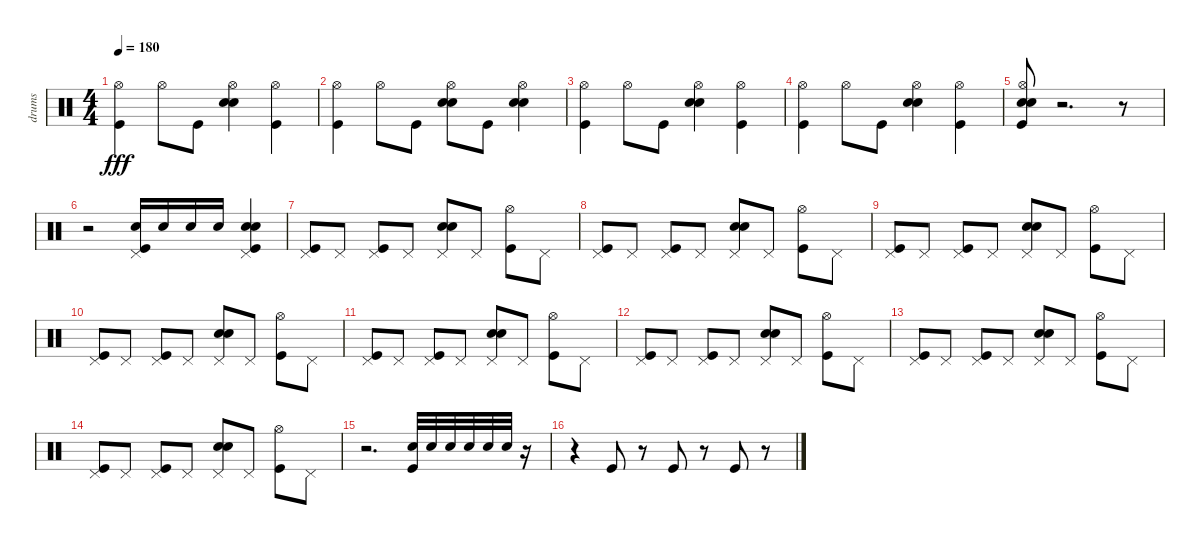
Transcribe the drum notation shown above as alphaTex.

\track ("drums" "drums") {instrument percussion}
\staff {score}
\articulation defaults
\ts (4 4)
\tempo 180
\clef neutral
\ks c
("Kick (hit)" "Hi-Hat (open)").4{dy fff} "Hi-Hat (open)".8 "Kick (hit)".8 ("Snare (hit) 2" "Electric Snare (hit)" "Hi-Hat (open)").4 ("Hi-Hat (open)" "Kick (hit)").4 |
("Hi-Hat (open)" "Kick (hit)").4 "Hi-Hat (open)".8 "Kick (hit)".8 ("Hi-Hat (open)" "Snare (hit) 2" "Electric Snare (hit)").8 "Kick (hit)".8 ("Hi-Hat (open)" "Electric Snare (hit)" "Snare (hit) 2").4 |
("Hi-Hat (open)" "Kick (hit)").4 "Hi-Hat (open)".8 "Kick (hit)".8 ("Hi-Hat (open)" "Snare (hit) 2" "Electric Snare (hit)").4 ("Hi-Hat (open)" "Kick (hit)").4 |
("Hi-Hat (open)" "Kick (hit)").4 "Hi-Hat (open)".8 "Kick (hit)".8 ("Hi-Hat (open)" "Snare (hit) 2" "Electric Snare (hit)").4 ("Hi-Hat (open)" "Kick (hit)").4 |
("Hi-Hat (open)" "Electric Snare (hit)" "Snare (hit) 2" "Kick (hit)").8 r.2{d} r.8 |
r.2 ("Pedal Hi-Hat (hit)" "Kick (hit)" "Snare (hit) 2").16 "Snare (hit) 2".16 "Snare (hit) 2".16 "Snare (hit) 2".16 ("Snare (hit) 2" "Electric Snare (hit)" "Pedal Hi-Hat (hit)" "Kick (hit)").4 |
("Pedal Hi-Hat (hit)" "Kick (hit)").8 "Pedal Hi-Hat (hit)".8 ("Pedal Hi-Hat (hit)" "Kick (hit)").8 "Pedal Hi-Hat (hit)".8 ("Pedal Hi-Hat (hit)" "Electric Snare (hit)" "Snare (hit) 2").8 "Pedal Hi-Hat (hit)".8 ("Hi-Hat (open)" "Kick (hit)").8 "Pedal Hi-Hat (hit)".8 |
("Kick (hit)" "Pedal Hi-Hat (hit)").8 "Pedal Hi-Hat (hit)".8 ("Kick (hit)" "Pedal Hi-Hat (hit)").8 "Pedal Hi-Hat (hit)".8 ("Snare (hit) 2" "Electric Snare (hit)" "Pedal Hi-Hat (hit)").8 "Pedal Hi-Hat (hit)".8 ("Hi-Hat (open)" "Kick (hit)").8 "Pedal Hi-Hat (hit)".8 |
("Pedal Hi-Hat (hit)" "Kick (hit)").8 "Pedal Hi-Hat (hit)".8 ("Pedal Hi-Hat (hit)" "Kick (hit)").8 "Pedal Hi-Hat (hit)".8 ("Pedal Hi-Hat (hit)" "Electric Snare (hit)" "Snare (hit) 2").8 "Pedal Hi-Hat (hit)".8 ("Hi-Hat (open)" "Kick (hit)").8 "Pedal Hi-Hat (hit)".8 |
("Kick (hit)" "Pedal Hi-Hat (hit)").8 "Pedal Hi-Hat (hit)".8 ("Kick (hit)" "Pedal Hi-Hat (hit)").8 "Pedal Hi-Hat (hit)".8 ("Snare (hit) 2" "Electric Snare (hit)" "Pedal Hi-Hat (hit)").8 "Pedal Hi-Hat (hit)".8 ("Hi-Hat (open)" "Kick (hit)").8 "Pedal Hi-Hat (hit)".8 |
("Pedal Hi-Hat (hit)" "Kick (hit)").8 "Pedal Hi-Hat (hit)".8 ("Pedal Hi-Hat (hit)" "Kick (hit)").8 "Pedal Hi-Hat (hit)".8 ("Pedal Hi-Hat (hit)" "Electric Snare (hit)" "Snare (hit) 2").8 "Pedal Hi-Hat (hit)".8 ("Hi-Hat (open)" "Kick (hit)").8 "Pedal Hi-Hat (hit)".8 |
("Kick (hit)" "Pedal Hi-Hat (hit)").8 "Pedal Hi-Hat (hit)".8 ("Kick (hit)" "Pedal Hi-Hat (hit)").8 "Pedal Hi-Hat (hit)".8 ("Snare (hit) 2" "Electric Snare (hit)" "Pedal Hi-Hat (hit)").8 "Pedal Hi-Hat (hit)".8 ("Hi-Hat (open)" "Kick (hit)").8 "Pedal Hi-Hat (hit)".8 |
("Pedal Hi-Hat (hit)" "Kick (hit)").8 "Pedal Hi-Hat (hit)".8 ("Pedal Hi-Hat (hit)" "Kick (hit)").8 "Pedal Hi-Hat (hit)".8 ("Pedal Hi-Hat (hit)" "Electric Snare (hit)" "Snare (hit) 2").8 "Pedal Hi-Hat (hit)".8 ("Hi-Hat (open)" "Kick (hit)").8 "Pedal Hi-Hat (hit)".8 |
("Kick (hit)" "Pedal Hi-Hat (hit)").8 "Pedal Hi-Hat (hit)".8 ("Kick (hit)" "Pedal Hi-Hat (hit)").8 "Pedal Hi-Hat (hit)".8 ("Snare (hit) 2" "Electric Snare (hit)" "Pedal Hi-Hat (hit)").8 "Pedal Hi-Hat (hit)".8 ("Hi-Hat (open)" "Kick (hit)").8 "Pedal Hi-Hat (hit)".8 |
r.2{d} ("Electric Snare (hit)" "Kick (hit)").32 "Electric Snare (hit)".32 "Electric Snare (hit)".32 "Electric Snare (hit)".32 "Electric Snare (hit)".32 "Electric Snare (hit)".32 r.16 |
r.4 "Kick (hit)".8 r.8 "Kick (hit)".8 r.8 "Kick (hit)".8 r.8
